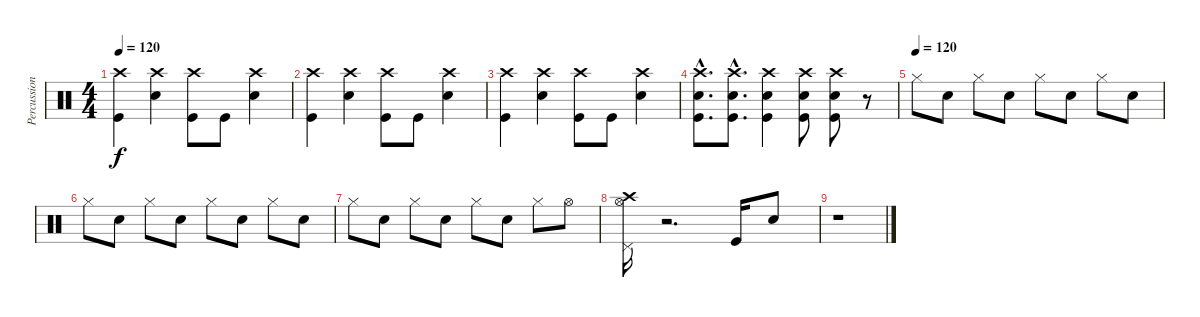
\track ("Percussions" "Percussion") {instrument percussion}
\staff {score}
\articulation defaults
\ts (4 4)
\tempo 120
\clef neutral
\ks c
("Crash high (hit)" "Kick (hit)").4{dy f} ("Crash high (hit)" "Snare (hit) 2").4 ("Crash high (hit)" "Kick (hit)").8 "Kick (hit)".8 ("Crash high (hit)" "Snare (hit) 2").4 |
("Crash high (hit)" "Kick (hit)").4 ("Crash high (hit)" "Snare (hit) 2").4 ("Crash high (hit)" "Kick (hit)").8 "Kick (hit)".8 ("Crash high (hit)" "Snare (hit) 2").4 |
("Crash high (hit)" "Kick (hit)").4 ("Crash high (hit)" "Snare (hit) 2").4 ("Crash high (hit)" "Kick (hit)").8 "Kick (hit)".8 ("Crash high (hit)" "Snare (hit) 2").4 |
("Crash high (hit)"{hac} "Kick (hit)"{hac} "Snare (hit) 2"{hac}).8{d} ("Crash high (hit)"{hac} "Kick (hit)"{hac} "Snare (hit) 2"{hac}).8{d} ("Crash high (hit)" "Kick (hit)" "Snare (hit) 2").4 ("Crash high (hit)" "Kick (hit)" "Snare (hit) 2").8 ("Crash high (hit)" "Kick (hit)" "Snare (hit) 2").8 r.8 |
\tempo (120)
"Hi-Hat (closed)".8 "Snare (hit) 2".8 "Hi-Hat (closed)".8 "Snare (hit) 2".8 "Hi-Hat (closed)".8 "Snare (hit) 2".8 "Hi-Hat (closed)".8 "Snare (hit) 2".8 |
"Hi-Hat (closed)".8 "Snare (hit) 2".8 "Hi-Hat (closed)".8 "Snare (hit) 2".8 "Hi-Hat (closed)".8 "Snare (hit) 2".8 "Hi-Hat (closed)".8 "Snare (hit) 2".8 |
"Hi-Hat (closed)".8 "Snare (hit) 2".8 "Hi-Hat (closed)".8 "Snare (hit) 2".8 "Hi-Hat (closed)".8 "Snare (hit) 2".8 "Hi-Hat (closed)".8 "Hi-Hat (open)".8 |
("Crash high (hit)" "Hi-Hat (open)" "Pedal Hi-Hat (hit)").16 r.2{d} "Kick (hit)".16 "Snare (hit) 2".8 |
r.1
